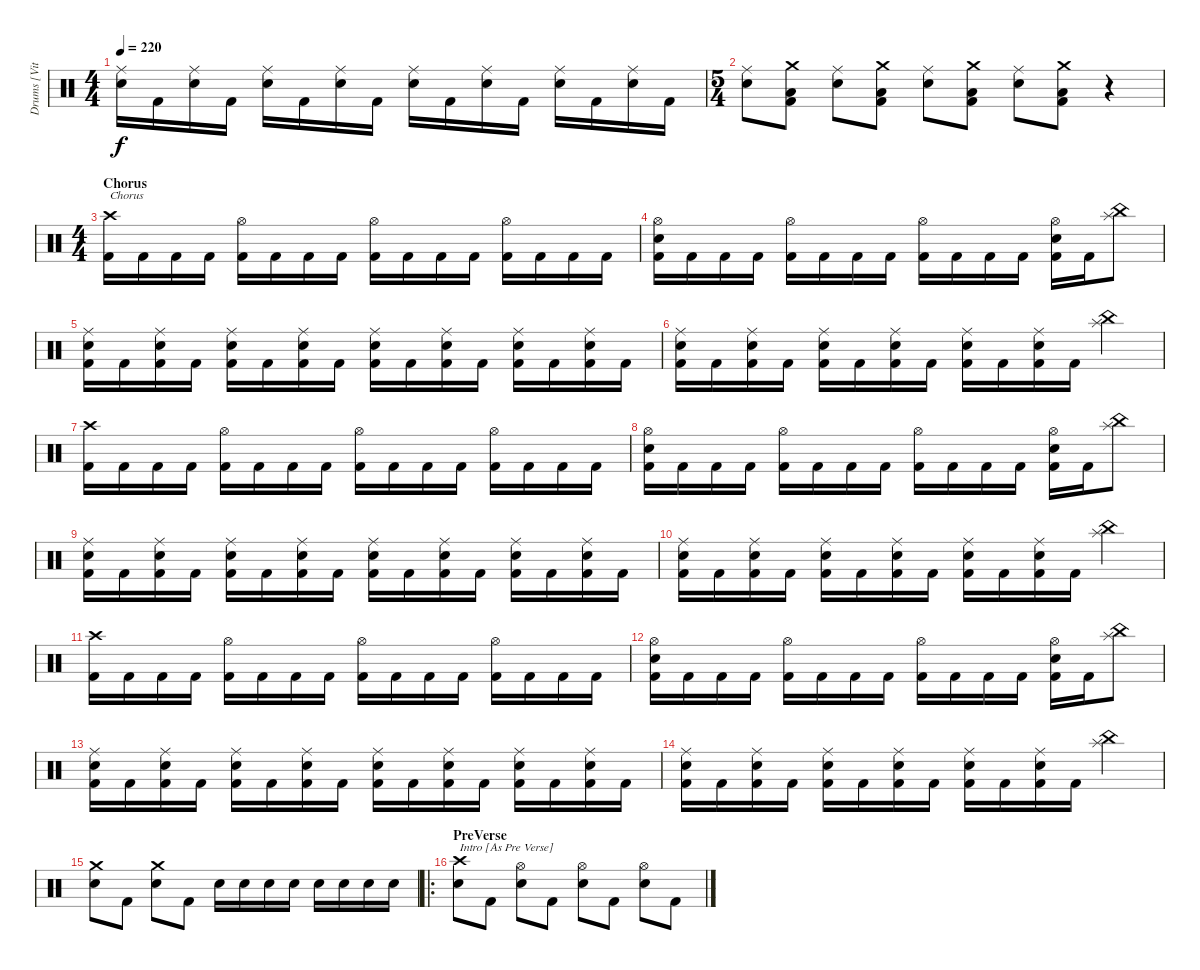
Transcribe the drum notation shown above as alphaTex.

\track ("Drums [Vitek]" "Drums [Vit") {instrument percussion}
\staff {score}
\articulation defaults
\ts (4 4)
\tempo 220
\clef neutral
\ks c
("Ride (middle)" "Electric Snare (hit)").16{dy f} "Kick (hit) 2".16 ("Ride (middle)" "Electric Snare (hit)").16 "Kick (hit) 2".16 ("Ride (middle)" "Electric Snare (hit)").16 "Kick (hit) 2".16 ("Ride (middle)" "Electric Snare (hit)").16 "Kick (hit) 2".16 ("Ride (middle)" "Electric Snare (hit)").16 "Kick (hit) 2".16 ("Ride (middle)" "Electric Snare (hit)").16 "Kick (hit) 2".16 ("Ride (middle)" "Electric Snare (hit)").16 "Kick (hit) 2".16 ("Ride (middle)" "Electric Snare (hit)").16 "Kick (hit) 2".16 |
\ts (5 4)
("Ride (middle)" "Electric Snare (hit)").8 ("Crash medium (hit)" "Low Tom (hit)" "Kick (hit) 2").8 ("Ride (middle)" "Electric Snare (hit)").8 ("Crash medium (hit)" "Low Tom (hit)" "Kick (hit) 2").8 ("Ride (middle)" "Electric Snare (hit)").8 ("Crash medium (hit)" "Low Tom (hit)" "Kick (hit) 2").8 ("Ride (middle)" "Electric Snare (hit)").8 ("Crash medium (hit)" "Low Tom (hit)" "Kick (hit) 2").8 r.4 |
\ts (4 4)
\section ("" "Chorus")
("Crash high (hit)" "Kick (hit) 2").16{txt "Chorus"} "Kick (hit) 2".16 "Kick (hit) 2".16 "Kick (hit) 2".16 ("Hi-Hat (open)" "Kick (hit) 2").16 "Kick (hit) 2".16 "Kick (hit) 2".16 "Kick (hit) 2".16 ("Hi-Hat (open)" "Kick (hit) 2").16 "Kick (hit) 2".16 "Kick (hit) 2".16 "Kick (hit) 2".16 ("Hi-Hat (open)" "Kick (hit) 2").16 "Kick (hit) 2".16 "Kick (hit) 2".16 "Kick (hit) 2".16 |
("Hi-Hat (open)" "Electric Snare (hit)" "Kick (hit) 2").16 "Kick (hit) 2".16 "Kick (hit) 2".16 "Kick (hit) 2".16 ("Hi-Hat (open)" "Kick (hit) 2").16 "Kick (hit) 2".16 "Kick (hit) 2".16 "Kick (hit) 2".16 ("Hi-Hat (open)" "Kick (hit) 2").16 "Kick (hit) 2".16 "Kick (hit) 2".16 "Kick (hit) 2".16 ("Hi-Hat (open)" "Electric Snare (hit)" "Kick (hit) 2").16 "Kick (hit) 2".16 ("Splash (hit)" "China (hit)").8 |
("Ride (middle)" "Electric Snare (hit)" "Kick (hit) 2").16 "Kick (hit) 2".16 ("Ride (middle)" "Electric Snare (hit)" "Kick (hit) 2").16 "Kick (hit) 2".16 ("Ride (middle)" "Electric Snare (hit)" "Kick (hit) 2").16 "Kick (hit) 2".16 ("Ride (middle)" "Electric Snare (hit)" "Kick (hit) 2").16 "Kick (hit) 2".16 ("Ride (middle)" "Electric Snare (hit)" "Kick (hit) 2").16 "Kick (hit) 2".16 ("Ride (middle)" "Electric Snare (hit)" "Kick (hit) 2").16 "Kick (hit) 2".16 ("Ride (middle)" "Electric Snare (hit)" "Kick (hit) 2").16 "Kick (hit) 2".16 ("Ride (middle)" "Electric Snare (hit)" "Kick (hit) 2").16 "Kick (hit) 2".16 |
("Ride (middle)" "Electric Snare (hit)" "Kick (hit) 2").16 "Kick (hit) 2".16 ("Ride (middle)" "Electric Snare (hit)" "Kick (hit) 2").16 "Kick (hit) 2".16 ("Ride (middle)" "Electric Snare (hit)" "Kick (hit) 2").16 "Kick (hit) 2".16 ("Ride (middle)" "Electric Snare (hit)" "Kick (hit) 2").16 "Kick (hit) 2".16 ("Ride (middle)" "Electric Snare (hit)" "Kick (hit) 2").16 "Kick (hit) 2".16 ("Ride (middle)" "Electric Snare (hit)" "Kick (hit) 2").16 "Kick (hit) 2".16 ("Splash (hit)" "China (hit)").4 |
("Crash high (hit)" "Kick (hit) 2").16 "Kick (hit) 2".16 "Kick (hit) 2".16 "Kick (hit) 2".16 ("Hi-Hat (open)" "Kick (hit) 2").16 "Kick (hit) 2".16 "Kick (hit) 2".16 "Kick (hit) 2".16 ("Hi-Hat (open)" "Kick (hit) 2").16 "Kick (hit) 2".16 "Kick (hit) 2".16 "Kick (hit) 2".16 ("Hi-Hat (open)" "Kick (hit) 2").16 "Kick (hit) 2".16 "Kick (hit) 2".16 "Kick (hit) 2".16 |
("Hi-Hat (open)" "Electric Snare (hit)" "Kick (hit) 2").16 "Kick (hit) 2".16 "Kick (hit) 2".16 "Kick (hit) 2".16 ("Hi-Hat (open)" "Kick (hit) 2").16 "Kick (hit) 2".16 "Kick (hit) 2".16 "Kick (hit) 2".16 ("Hi-Hat (open)" "Kick (hit) 2").16 "Kick (hit) 2".16 "Kick (hit) 2".16 "Kick (hit) 2".16 ("Hi-Hat (open)" "Electric Snare (hit)" "Kick (hit) 2").16 "Kick (hit) 2".16 ("Splash (hit)" "China (hit)").8 |
("Ride (middle)" "Electric Snare (hit)" "Kick (hit) 2").16 "Kick (hit) 2".16 ("Ride (middle)" "Electric Snare (hit)" "Kick (hit) 2").16 "Kick (hit) 2".16 ("Ride (middle)" "Electric Snare (hit)" "Kick (hit) 2").16 "Kick (hit) 2".16 ("Ride (middle)" "Electric Snare (hit)" "Kick (hit) 2").16 "Kick (hit) 2".16 ("Ride (middle)" "Electric Snare (hit)" "Kick (hit) 2").16 "Kick (hit) 2".16 ("Ride (middle)" "Electric Snare (hit)" "Kick (hit) 2").16 "Kick (hit) 2".16 ("Ride (middle)" "Electric Snare (hit)" "Kick (hit) 2").16 "Kick (hit) 2".16 ("Ride (middle)" "Electric Snare (hit)" "Kick (hit) 2").16 "Kick (hit) 2".16 |
("Ride (middle)" "Electric Snare (hit)" "Kick (hit) 2").16 "Kick (hit) 2".16 ("Ride (middle)" "Electric Snare (hit)" "Kick (hit) 2").16 "Kick (hit) 2".16 ("Ride (middle)" "Electric Snare (hit)" "Kick (hit) 2").16 "Kick (hit) 2".16 ("Ride (middle)" "Electric Snare (hit)" "Kick (hit) 2").16 "Kick (hit) 2".16 ("Ride (middle)" "Electric Snare (hit)" "Kick (hit) 2").16 "Kick (hit) 2".16 ("Ride (middle)" "Electric Snare (hit)" "Kick (hit) 2").16 "Kick (hit) 2".16 ("Splash (hit)" "China (hit)").4 |
("Crash high (hit)" "Kick (hit) 2").16 "Kick (hit) 2".16 "Kick (hit) 2".16 "Kick (hit) 2".16 ("Hi-Hat (open)" "Kick (hit) 2").16 "Kick (hit) 2".16 "Kick (hit) 2".16 "Kick (hit) 2".16 ("Hi-Hat (open)" "Kick (hit) 2").16 "Kick (hit) 2".16 "Kick (hit) 2".16 "Kick (hit) 2".16 ("Hi-Hat (open)" "Kick (hit) 2").16 "Kick (hit) 2".16 "Kick (hit) 2".16 "Kick (hit) 2".16 |
("Hi-Hat (open)" "Electric Snare (hit)" "Kick (hit) 2").16 "Kick (hit) 2".16 "Kick (hit) 2".16 "Kick (hit) 2".16 ("Hi-Hat (open)" "Kick (hit) 2").16 "Kick (hit) 2".16 "Kick (hit) 2".16 "Kick (hit) 2".16 ("Hi-Hat (open)" "Kick (hit) 2").16 "Kick (hit) 2".16 "Kick (hit) 2".16 "Kick (hit) 2".16 ("Hi-Hat (open)" "Electric Snare (hit)" "Kick (hit) 2").16 "Kick (hit) 2".16 ("Splash (hit)" "China (hit)").8 |
("Ride (middle)" "Electric Snare (hit)" "Kick (hit) 2").16 "Kick (hit) 2".16 ("Ride (middle)" "Electric Snare (hit)" "Kick (hit) 2").16 "Kick (hit) 2".16 ("Ride (middle)" "Electric Snare (hit)" "Kick (hit) 2").16 "Kick (hit) 2".16 ("Ride (middle)" "Electric Snare (hit)" "Kick (hit) 2").16 "Kick (hit) 2".16 ("Ride (middle)" "Electric Snare (hit)" "Kick (hit) 2").16 "Kick (hit) 2".16 ("Ride (middle)" "Electric Snare (hit)" "Kick (hit) 2").16 "Kick (hit) 2".16 ("Ride (middle)" "Electric Snare (hit)" "Kick (hit) 2").16 "Kick (hit) 2".16 ("Ride (middle)" "Electric Snare (hit)" "Kick (hit) 2").16 "Kick (hit) 2".16 |
("Ride (middle)" "Electric Snare (hit)" "Kick (hit) 2").16 "Kick (hit) 2".16 ("Ride (middle)" "Electric Snare (hit)" "Kick (hit) 2").16 "Kick (hit) 2".16 ("Ride (middle)" "Electric Snare (hit)" "Kick (hit) 2").16 "Kick (hit) 2".16 ("Ride (middle)" "Electric Snare (hit)" "Kick (hit) 2").16 "Kick (hit) 2".16 ("Ride (middle)" "Electric Snare (hit)" "Kick (hit) 2").16 "Kick (hit) 2".16 ("Ride (middle)" "Electric Snare (hit)" "Kick (hit) 2").16 "Kick (hit) 2".16 ("Splash (hit)" "China (hit)").4 |
("Crash medium (hit)" "Electric Snare (hit)").8 "Kick (hit) 2".8 ("Crash medium (hit)" "Electric Snare (hit)").8 "Kick (hit) 2".8 "Electric Snare (hit)".16 "Electric Snare (hit)".16 "Electric Snare (hit)".16 "Electric Snare (hit)".16 "Electric Snare (hit)".16 "Electric Snare (hit)".16 "Electric Snare (hit)".16 "Electric Snare (hit)".16 |
\ro
\section ("" "PreVerse")
("Crash high (hit)" "Electric Snare (hit)").8{txt "Intro [As Pre Verse]"} "Kick (hit) 2".8 ("Hi-Hat (open)" "Electric Snare (hit)").8 "Kick (hit) 2".8 ("Hi-Hat (open)" "Electric Snare (hit)").8 "Kick (hit) 2".8 ("Hi-Hat (open)" "Electric Snare (hit)").8 "Kick (hit) 2".8
